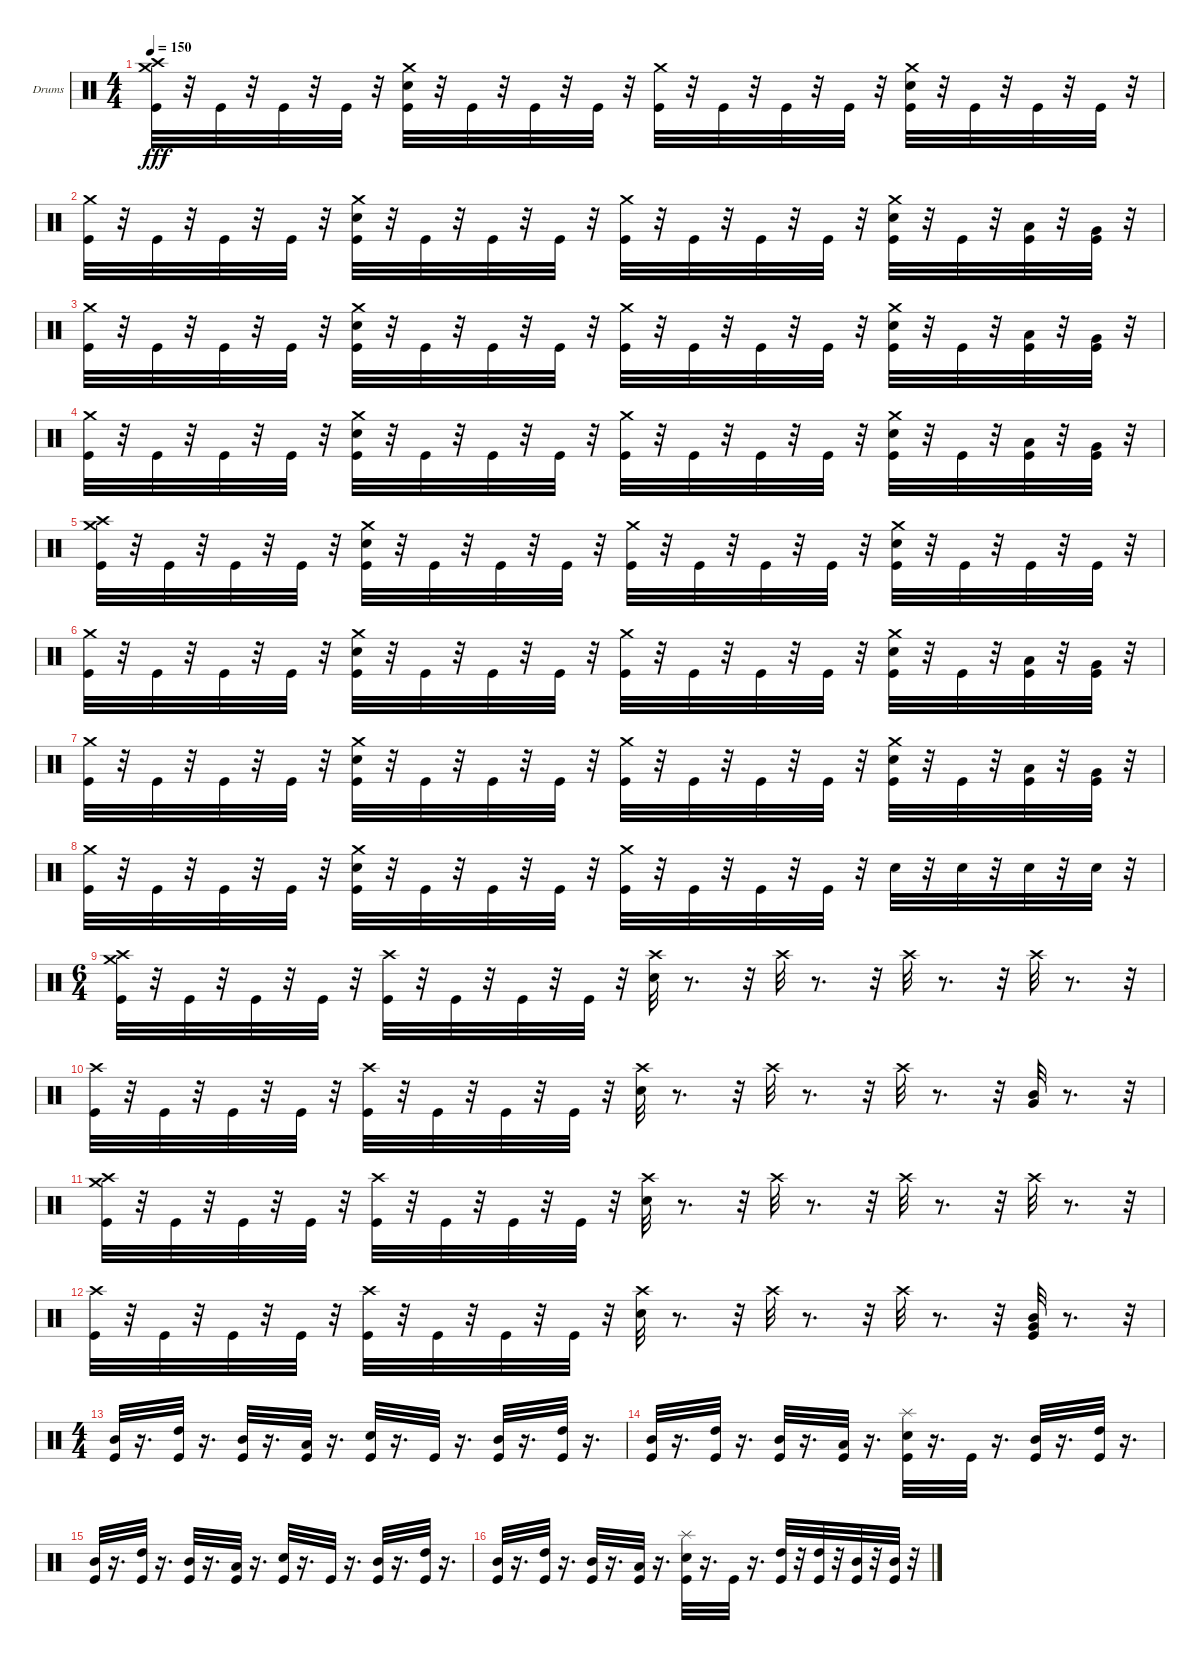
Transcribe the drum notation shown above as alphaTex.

\bracketExtendMode groupsimilarinstruments
\firstSystemTrackNameOrientation horizontal
\otherSystemsTrackNameOrientation horizontal
\track ("Dave McClain" "Drums") {mute instrument percussion}
\staff {score}
\articulation defaults
\ts (4 4)
\tempo 150
\clef neutral
\ks c
("Crash high (hit)" "Crash medium (hit)" "Kick (hit)").32{dy fff} r.32 "Kick (hit)".32 r.32 "Kick (hit)".32 r.32 "Kick (hit)".32 r.32 ("Snare (hit) 2" "Crash medium (hit)" "Kick (hit)").32 r.32 "Kick (hit)".32 r.32 "Kick (hit)".32 r.32 "Kick (hit)".32 r.32 ("Crash medium (hit)" "Kick (hit)").32 r.32 "Kick (hit)".32 r.32 "Kick (hit)".32 r.32 "Kick (hit)".32 r.32 ("Snare (hit) 2" "Crash medium (hit)" "Kick (hit)").32 r.32 "Kick (hit)".32 r.32 "Kick (hit)".32 r.32 "Kick (hit)".32 r.32 |
("Crash medium (hit)" "Kick (hit)").32 r.32 "Kick (hit)".32 r.32 "Kick (hit)".32 r.32 "Kick (hit)".32 r.32 ("Snare (hit) 2" "Crash medium (hit)" "Kick (hit)").32 r.32 "Kick (hit)".32 r.32 "Kick (hit)".32 r.32 "Kick (hit)".32 r.32 ("Crash medium (hit)" "Kick (hit)").32 r.32 "Kick (hit)".32 r.32 "Kick (hit)".32 r.32 "Kick (hit)".32 r.32 ("Snare (hit) 2" "Crash medium (hit)" "Kick (hit)").32 r.32 "Kick (hit)".32 r.32 ("Low Tom (hit)" "Kick (hit)").32 r.32 ("Very Low Tom (hit)" "Kick (hit)").32 r.32 |
("Crash medium (hit)" "Kick (hit)").32 r.32 "Kick (hit)".32 r.32 "Kick (hit)".32 r.32 "Kick (hit)".32 r.32 ("Snare (hit) 2" "Crash medium (hit)" "Kick (hit)").32 r.32 "Kick (hit)".32 r.32 "Kick (hit)".32 r.32 "Kick (hit)".32 r.32 ("Crash medium (hit)" "Kick (hit)").32 r.32 "Kick (hit)".32 r.32 "Kick (hit)".32 r.32 "Kick (hit)".32 r.32 ("Snare (hit) 2" "Crash medium (hit)" "Kick (hit)").32 r.32 "Kick (hit)".32 r.32 ("Low Tom (hit)" "Kick (hit)").32 r.32 ("Very Low Tom (hit)" "Kick (hit)").32 r.32 |
("Crash medium (hit)" "Kick (hit)").32 r.32 "Kick (hit)".32 r.32 "Kick (hit)".32 r.32 "Kick (hit)".32 r.32 ("Snare (hit) 2" "Crash medium (hit)" "Kick (hit)").32 r.32 "Kick (hit)".32 r.32 "Kick (hit)".32 r.32 "Kick (hit)".32 r.32 ("Crash medium (hit)" "Kick (hit)").32 r.32 "Kick (hit)".32 r.32 "Kick (hit)".32 r.32 "Kick (hit)".32 r.32 ("Snare (hit) 2" "Crash medium (hit)" "Kick (hit)").32 r.32 "Kick (hit)".32 r.32 ("Low Tom (hit)" "Kick (hit)").32 r.32 ("Very Low Tom (hit)" "Kick (hit)").32 r.32 |
("Crash high (hit)" "Crash medium (hit)" "Kick (hit)").32 r.32 "Kick (hit)".32 r.32 "Kick (hit)".32 r.32 "Kick (hit)".32 r.32 ("Snare (hit) 2" "Crash medium (hit)" "Kick (hit)").32 r.32 "Kick (hit)".32 r.32 "Kick (hit)".32 r.32 "Kick (hit)".32 r.32 ("Crash medium (hit)" "Kick (hit)").32 r.32 "Kick (hit)".32 r.32 "Kick (hit)".32 r.32 "Kick (hit)".32 r.32 ("Snare (hit) 2" "Crash medium (hit)" "Kick (hit)").32 r.32 "Kick (hit)".32 r.32 "Kick (hit)".32 r.32 "Kick (hit)".32 r.32 |
("Crash medium (hit)" "Kick (hit)").32 r.32 "Kick (hit)".32 r.32 "Kick (hit)".32 r.32 "Kick (hit)".32 r.32 ("Snare (hit) 2" "Crash medium (hit)" "Kick (hit)").32 r.32 "Kick (hit)".32 r.32 "Kick (hit)".32 r.32 "Kick (hit)".32 r.32 ("Crash medium (hit)" "Kick (hit)").32 r.32 "Kick (hit)".32 r.32 "Kick (hit)".32 r.32 "Kick (hit)".32 r.32 ("Snare (hit) 2" "Crash medium (hit)" "Kick (hit)").32 r.32 "Kick (hit)".32 r.32 ("Low Tom (hit)" "Kick (hit)").32 r.32 ("Very Low Tom (hit)" "Kick (hit)").32 r.32 |
("Crash medium (hit)" "Kick (hit)").32 r.32 "Kick (hit)".32 r.32 "Kick (hit)".32 r.32 "Kick (hit)".32 r.32 ("Snare (hit) 2" "Crash medium (hit)" "Kick (hit)").32 r.32 "Kick (hit)".32 r.32 "Kick (hit)".32 r.32 "Kick (hit)".32 r.32 ("Crash medium (hit)" "Kick (hit)").32 r.32 "Kick (hit)".32 r.32 "Kick (hit)".32 r.32 "Kick (hit)".32 r.32 ("Snare (hit) 2" "Crash medium (hit)" "Kick (hit)").32 r.32 "Kick (hit)".32 r.32 ("Low Tom (hit)" "Kick (hit)").32 r.32 ("Very Low Tom (hit)" "Kick (hit)").32 r.32 |
("Crash medium (hit)" "Kick (hit)").32 r.32 "Kick (hit)".32 r.32 "Kick (hit)".32 r.32 "Kick (hit)".32 r.32 ("Snare (hit) 2" "Crash medium (hit)" "Kick (hit)").32 r.32 "Kick (hit)".32 r.32 "Kick (hit)".32 r.32 "Kick (hit)".32 r.32 ("Crash medium (hit)" "Kick (hit)").32 r.32 "Kick (hit)".32 r.32 "Kick (hit)".32 r.32 "Kick (hit)".32 r.32 "Snare (hit) 2".32 r.32 "Snare (hit) 2".32 r.32 "Snare (hit) 2".32 r.32 "Snare (hit) 2".32 r.32 |
\ts (6 4)
("Crash high (hit)" "Crash medium (hit)" "Kick (hit)").32 r.32 "Kick (hit)".32 r.32 "Kick (hit)".32 r.32 "Kick (hit)".32 r.32 ("Crash high (hit)" "Kick (hit)").32 r.32 "Kick (hit)".32 r.32 "Kick (hit)".32 r.32 "Kick (hit)".32 r.32 ("Snare (hit) 2" "Crash high (hit)").32 r.8{d} r.32 "Crash high (hit)".32 r.8{d} r.32 "Crash high (hit)".32 r.8{d} r.32 "Crash high (hit)".32 r.8{d} r.32 |
("Kick (hit)" "Crash high (hit)").32 r.32 "Kick (hit)".32 r.32 "Kick (hit)".32 r.32 "Kick (hit)".32 r.32 ("Kick (hit)" "Crash high (hit)").32 r.32 "Kick (hit)".32 r.32 "Kick (hit)".32 r.32 "Kick (hit)".32 r.32 ("Snare (hit) 2" "Crash high (hit)").32 r.8{d} r.32 "Crash high (hit)".32 r.8{d} r.32 "Crash high (hit)".32 r.8{d} r.32 ("Mid Tom (hit)" "Very Low Tom (hit)").32 r.8{d} r.32 |
("Crash high (hit)" "Crash medium (hit)" "Kick (hit)").32 r.32 "Kick (hit)".32 r.32 "Kick (hit)".32 r.32 "Kick (hit)".32 r.32 ("Crash high (hit)" "Kick (hit)").32 r.32 "Kick (hit)".32 r.32 "Kick (hit)".32 r.32 "Kick (hit)".32 r.32 ("Snare (hit) 2" "Crash high (hit)").32 r.8{d} r.32 "Crash high (hit)".32 r.8{d} r.32 "Crash high (hit)".32 r.8{d} r.32 "Crash high (hit)".32 r.8{d} r.32 |
("Kick (hit)" "Crash high (hit)").32 r.32 "Kick (hit)".32 r.32 "Kick (hit)".32 r.32 "Kick (hit)".32 r.32 ("Kick (hit)" "Crash high (hit)").32 r.32 "Kick (hit)".32 r.32 "Kick (hit)".32 r.32 "Kick (hit)".32 r.32 ("Snare (hit) 2" "Crash high (hit)").32 r.8{d} r.32 "Crash high (hit)".32 r.8{d} r.32 "Crash high (hit)".32 r.8{d} r.32 ("Mid Tom (hit)" "Very Low Tom (hit)" "Kick (hit)").32 r.8{d} r.32 |
\ts (4 4)
("Mid Tom (hit)" "Kick (hit)").32 r.16{d} ("High Tom (hit)" "Kick (hit)").32 r.16{d} ("Mid Tom (hit)" "Kick (hit)").32 r.16{d} ("Low Tom (hit)" "Kick (hit)").32 r.16{d} ("Snare (hit) 2" "Kick (hit)").32 r.16{d} "Kick (hit)".32 r.16{d} ("Mid Tom (hit)" "Kick (hit)").32 r.16{d} ("High Tom (hit)" "Kick (hit)").32 r.16{d} |
("Mid Tom (hit)" "Kick (hit)").32 r.16{d} ("High Tom (hit)" "Kick (hit)").32 r.16{d} ("Mid Tom (hit)" "Kick (hit)").32 r.16{d} ("Low Tom (hit)" "Kick (hit)").32 r.16{d} ("Splash (hit)" "Snare (hit) 2" "Kick (hit)").32 r.16{d} "Kick (hit)".32 r.16{d} ("Mid Tom (hit)" "Kick (hit)").32 r.16{d} ("High Tom (hit)" "Kick (hit)").32 r.16{d} |
("Mid Tom (hit)" "Kick (hit)").32 r.16{d} ("High Tom (hit)" "Kick (hit)").32 r.16{d} ("Mid Tom (hit)" "Kick (hit)").32 r.16{d} ("Low Tom (hit)" "Kick (hit)").32 r.16{d} ("Snare (hit) 2" "Kick (hit)").32 r.16{d} "Kick (hit)".32 r.16{d} ("Mid Tom (hit)" "Kick (hit)").32 r.16{d} ("High Tom (hit)" "Kick (hit)").32 r.16{d} |
("Mid Tom (hit)" "Kick (hit)").32 r.16{d} ("High Tom (hit)" "Kick (hit)").32 r.16{d} ("Mid Tom (hit)" "Kick (hit)").32 r.16{d} ("Low Tom (hit)" "Kick (hit)").32 r.16{d} ("Splash (hit)" "Snare (hit) 2" "Kick (hit)").32 r.16{d} "Kick (hit)".32 r.16{d} ("High Tom (hit)" "Kick (hit)").32 r.32 ("High Tom (hit)" "Kick (hit)").32 r.32 ("Mid Tom (hit)" "Kick (hit)").32 r.32 ("Mid Tom (hit)" "Kick (hit)").32 r.32
